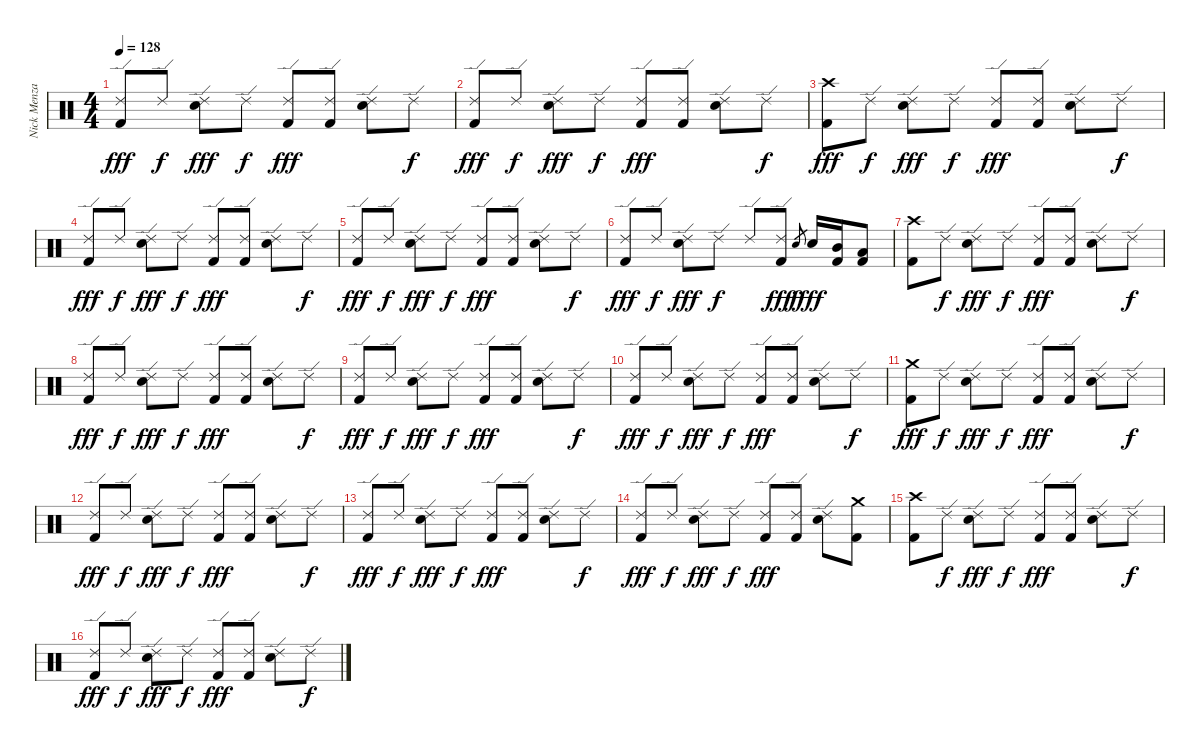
\track ("Nick Menza" "Nick Menza") {instrument percussion}
\staff {score}
\articulation defaults
\ts (4 4)
\tempo 128
\clef neutral
\ks c
("Ride (edge) 2" "Kick (hit) 2").8{dy fff} "Ride (edge) 2".8{dy f} ("Ride (edge) 2" "Electric Snare (hit)").8{dy fff} "Ride (edge) 2".8{dy f} ("Ride (edge) 2" "Kick (hit) 2").8{dy fff} ("Ride (edge) 2" "Kick (hit) 2").8 ("Ride (edge) 2" "Electric Snare (hit)").8 "Ride (edge) 2".8{dy f} |
("Ride (edge) 2" "Kick (hit) 2").8{dy fff} "Ride (edge) 2".8{dy f} ("Ride (edge) 2" "Electric Snare (hit)").8{dy fff} "Ride (edge) 2".8{dy f} ("Ride (edge) 2" "Kick (hit) 2").8{dy fff} ("Ride (edge) 2" "Kick (hit) 2").8 ("Ride (edge) 2" "Electric Snare (hit)").8 "Ride (edge) 2".8{dy f} |
("Crash high (hit)" "Kick (hit) 2").8{dy fff} "Ride (edge) 2".8{dy f} ("Ride (edge) 2" "Electric Snare (hit)").8{dy fff} "Ride (edge) 2".8{dy f} ("Ride (edge) 2" "Kick (hit) 2").8{dy fff} ("Ride (edge) 2" "Kick (hit) 2").8 ("Ride (edge) 2" "Electric Snare (hit)").8 "Ride (edge) 2".8{dy f} |
("Ride (edge) 2" "Kick (hit) 2").8{dy fff} "Ride (edge) 2".8{dy f} ("Ride (edge) 2" "Electric Snare (hit)").8{dy fff} "Ride (edge) 2".8{dy f} ("Ride (edge) 2" "Kick (hit) 2").8{dy fff} ("Ride (edge) 2" "Kick (hit) 2").8 ("Ride (edge) 2" "Electric Snare (hit)").8 "Ride (edge) 2".8{dy f} |
("Ride (edge) 2" "Kick (hit) 2").8{dy fff} "Ride (edge) 2".8{dy f} ("Ride (edge) 2" "Electric Snare (hit)").8{dy fff} "Ride (edge) 2".8{dy f} ("Ride (edge) 2" "Kick (hit) 2").8{dy fff} ("Ride (edge) 2" "Kick (hit) 2").8 ("Ride (edge) 2" "Electric Snare (hit)").8 "Ride (edge) 2".8{dy f} |
("Ride (edge) 2" "Kick (hit) 2").8{dy fff} "Ride (edge) 2".8{dy f} ("Ride (edge) 2" "Electric Snare (hit)").8{dy fff} "Ride (edge) 2".8{dy f} "Ride (edge) 2".8 ("Ride (edge) 2" "Kick (hit) 2").8{dy fff} "Electric Snare (hit)".8{gr dy f} "Electric Snare (hit)".16{dy fff} ("Mid Tom (hit)" "Kick (hit) 2").16 ("Low Tom (hit)" "Kick (hit) 2").8 |
("Crash high (hit)" "Kick (hit) 2").8 "Ride (edge) 2".8{dy f} ("Ride (edge) 2" "Electric Snare (hit)").8{dy fff} "Ride (edge) 2".8{dy f} ("Ride (edge) 2" "Kick (hit) 2").8{dy fff} ("Ride (edge) 2" "Kick (hit) 2").8 ("Ride (edge) 2" "Electric Snare (hit)").8 "Ride (edge) 2".8{dy f} |
("Ride (edge) 2" "Kick (hit) 2").8{dy fff} "Ride (edge) 2".8{dy f} ("Ride (edge) 2" "Electric Snare (hit)").8{dy fff} "Ride (edge) 2".8{dy f} ("Ride (edge) 2" "Kick (hit) 2").8{dy fff} ("Ride (edge) 2" "Kick (hit) 2").8 ("Ride (edge) 2" "Electric Snare (hit)").8 "Ride (edge) 2".8{dy f} |
("Ride (edge) 2" "Kick (hit) 2").8{dy fff} "Ride (edge) 2".8{dy f} ("Ride (edge) 2" "Electric Snare (hit)").8{dy fff} "Ride (edge) 2".8{dy f} ("Ride (edge) 2" "Kick (hit) 2").8{dy fff} ("Ride (edge) 2" "Kick (hit) 2").8 ("Ride (edge) 2" "Electric Snare (hit)").8 "Ride (edge) 2".8{dy f} |
("Ride (edge) 2" "Kick (hit) 2").8{dy fff} "Ride (edge) 2".8{dy f} ("Ride (edge) 2" "Electric Snare (hit)").8{dy fff} "Ride (edge) 2".8{dy f} ("Ride (edge) 2" "Kick (hit) 2").8{dy fff} ("Ride (edge) 2" "Kick (hit) 2").8 ("Ride (edge) 2" "Electric Snare (hit)").8 "Ride (edge) 2".8{dy f} |
("Crash medium (hit)" "Kick (hit) 2").8{dy fff} "Ride (edge) 2".8{dy f} ("Ride (edge) 2" "Electric Snare (hit)").8{dy fff} "Ride (edge) 2".8{dy f} ("Ride (edge) 2" "Kick (hit) 2").8{dy fff} ("Ride (edge) 2" "Kick (hit) 2").8 ("Ride (edge) 2" "Electric Snare (hit)").8 "Ride (edge) 2".8{dy f} |
("Ride (edge) 2" "Kick (hit) 2").8{dy fff} "Ride (edge) 2".8{dy f} ("Ride (edge) 2" "Electric Snare (hit)").8{dy fff} "Ride (edge) 2".8{dy f} ("Ride (edge) 2" "Kick (hit) 2").8{dy fff} ("Ride (edge) 2" "Kick (hit) 2").8 ("Ride (edge) 2" "Electric Snare (hit)").8 "Ride (edge) 2".8{dy f} |
("Ride (edge) 2" "Kick (hit) 2").8{dy fff} "Ride (edge) 2".8{dy f} ("Ride (edge) 2" "Electric Snare (hit)").8{dy fff} "Ride (edge) 2".8{dy f} ("Ride (edge) 2" "Kick (hit) 2").8{dy fff} ("Ride (edge) 2" "Kick (hit) 2").8 ("Ride (edge) 2" "Electric Snare (hit)").8 "Ride (edge) 2".8{dy f} |
("Ride (edge) 2" "Kick (hit) 2").8{dy fff} "Ride (edge) 2".8{dy f} ("Ride (edge) 2" "Electric Snare (hit)").8{dy fff} "Ride (edge) 2".8{dy f} ("Ride (edge) 2" "Kick (hit) 2").8{dy fff} ("Ride (edge) 2" "Kick (hit) 2").8 ("Ride (edge) 2" "Electric Snare (hit)").8 ("Crash medium (hit)" "Kick (hit) 2").8 |
("Crash high (hit)" "Kick (hit) 2").8 "Ride (edge) 2".8{dy f} ("Ride (edge) 2" "Electric Snare (hit)").8{dy fff} "Ride (edge) 2".8{dy f} ("Ride (edge) 2" "Kick (hit) 2").8{dy fff} ("Ride (edge) 2" "Kick (hit) 2").8 ("Ride (edge) 2" "Electric Snare (hit)").8 "Ride (edge) 2".8{dy f} |
("Ride (edge) 2" "Kick (hit) 2").8{dy fff} "Ride (edge) 2".8{dy f} ("Ride (edge) 2" "Electric Snare (hit)").8{dy fff} "Ride (edge) 2".8{dy f} ("Ride (edge) 2" "Kick (hit) 2").8{dy fff} ("Ride (edge) 2" "Kick (hit) 2").8 ("Ride (edge) 2" "Electric Snare (hit)").8 "Ride (edge) 2".8{dy f}
